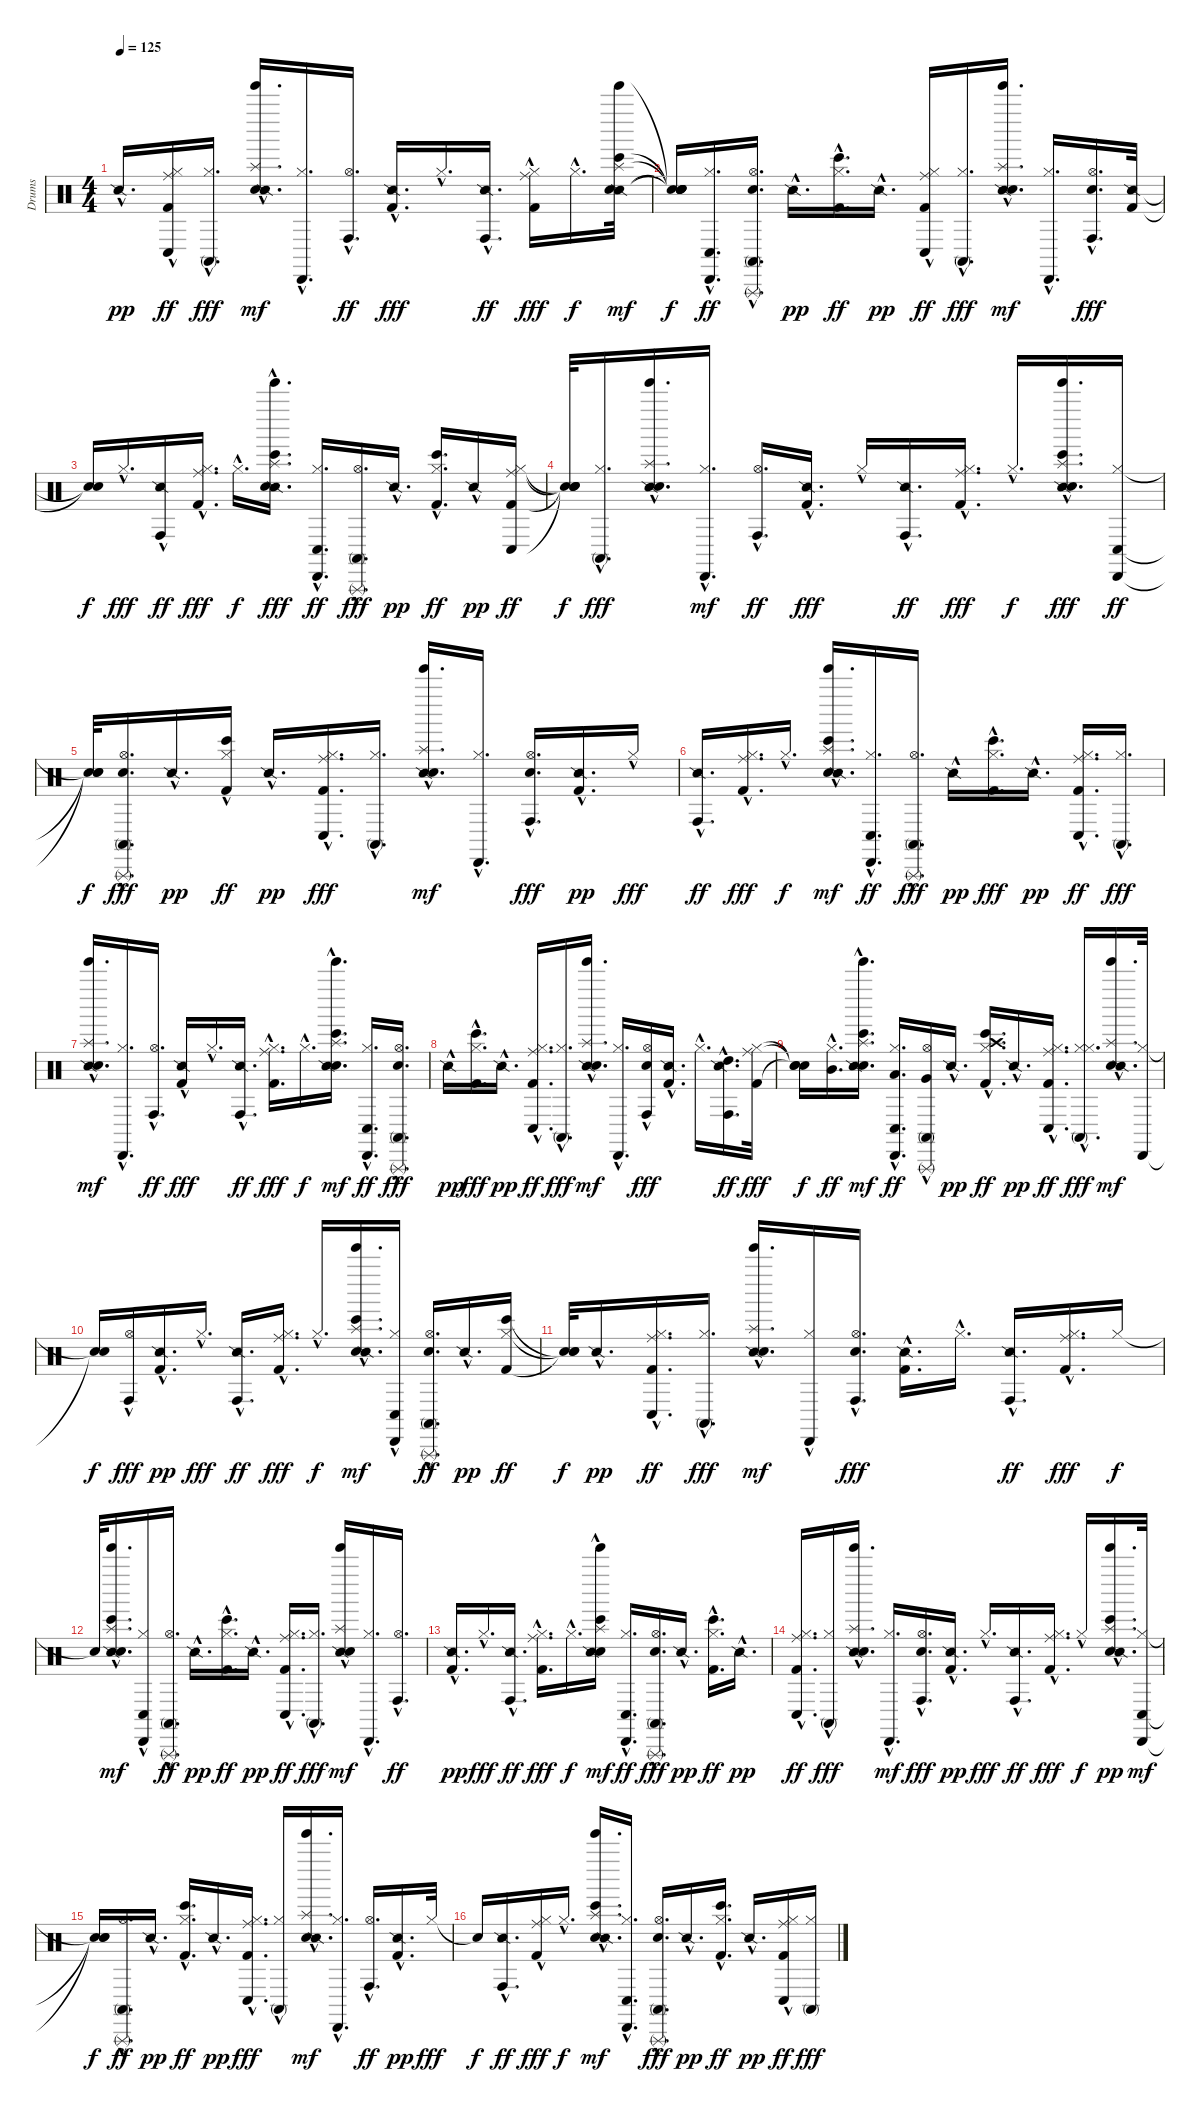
\track ("Drums" "Drums") {instrument percussion}
\staff {score}
\articulation defaults
\ts (4 4)
\tempo 125
\clef neutral
\ks c "Snare (side stick) 2"{hac}.16{d dy pp}
("Hi-Hat (closed)"{hac} "Kick (hit) 2"{hac} "Ride (middle)"{hac} "Conga low (hit)"{hac}).16{dy ff} ("Hi-Hat (closed)"{hac} "Conga high (mute)"{hac}).16{d dy fff} ("Hand Clap (hit)"{hac} "Snare (side stick) 2"{hac} "Tinkle Bell (hit)"{hac} "Splash (hit)"{hac}).16{d dy mf} ("Hi-Hat (closed)"{hac} "Cabasa (hit)"{hac}).16{d} ("Hi-Hat (open)"{hac} "Conga high (hit)"{hac}).16{d dy ff} ("Snare (side stick) 2"{hac} "Kick (hit) 2"{hac}).16{d dy fff} "Hi-Hat (closed)"{hac}.16{d} ("Snare (side stick) 2"{hac} "Conga high (hit)"{hac}).16{d dy ff} ("Kick (hit) 2"{hac} "Hi-Hat (closed)"{hac} "Ride (middle)"{hac}).16{dy fff} "Hi-Hat (closed)"{hac}.16{d dy f} ("Snare (side stick) 2" "Splash (hit)" "Hand Clap (hit)" "Bongo High (hit)" "Tinkle Bell (hit)").32{dy mf} |
("Snare (hit)"{t} "Snare (hit)"{t} "Snare (hit)"{t} "Snare (hit)"{t} "Snare (hit)"{t}).16{dy f} ("Hi-Hat (closed)"{hac} "Cabasa (hit)"{hac} "Conga low (hit)"{hac}).16{d dy ff} ("Hi-Hat (open)"{hac} "Hand Clap (hit)"{hac} "Conga high (mute)"{hac} "Triangle (rnute)"{hac}).16{d} "Snare (side stick) 2"{hac}.16{d dy pp} ("Hi-Hat (closed)"{hac} "Kick (hit) 2"{hac} "Bongo High (hit)"{hac}).16{d dy ff} "Snare (side stick) 2"{hac}.16{d dy pp} ("Kick (hit) 2"{hac} "Conga low (hit)"{hac} "Ride (middle)"{hac} "Hi-Hat (closed)"{hac}).16{dy ff} ("Hi-Hat (closed)"{hac} "Conga high (mute)"{hac}).16{d dy fff} ("Snare (side stick) 2"{hac} "Hand Clap (hit)"{hac} "Splash (hit)"{hac} "Tinkle Bell (hit)"{hac}).16{d dy mf} ("Cabasa (hit)"{hac} "Hi-Hat (closed)"{hac}).16{d} ("Hi-Hat (open)"{hac} "Conga high (hit)"{hac} "Hand Clap (hit)"{hac}).16{d dy fff} ("Snare (side stick) 2" "Kick (hit) 2").32 |
("Snare (hit)"{t} "Snare (hit)"{t}).16{dy f} "Hi-Hat (closed)"{hac}.16{d dy fff} ("Snare (side stick) 2"{hac} "Conga high (hit)"{hac}).16{dy ff} ("Kick (hit) 2"{hac} "Ride (middle)"{hac} "Hi-Hat (closed)"{hac}).16{d dy fff} "Hi-Hat (closed)"{hac}.16{d dy f} ("Tinkle Bell (hit)"{hac} "Snare (side stick) 2"{hac} "Bongo High (hit)"{hac} "Hand Clap (hit)"{hac} "Splash (hit)"{hac}).16{d dy fff} ("Hi-Hat (closed)"{hac} "Cabasa (hit)"{hac} "Conga low (hit)"{hac}).16{d dy ff} ("Conga high (mute)"{hac} "Triangle (rnute)"{hac} "Hi-Hat (open)"{hac}).16{d dy fff} "Snare (side stick) 2"{hac}.16{d dy pp} ("Hi-Hat (closed)"{hac} "Kick (hit) 2"{hac} "Bongo High (hit)"{hac}).16{d dy ff} "Snare (side stick) 2"{hac}.16{dy pp} ("Kick (hit) 2" "Conga low (hit)" "Hi-Hat (closed)" "Ride (middle)").16{dy ff} |
("Snare (hit)"{t} "Snare (hit)"{t} "Snare (hit)"{t} "Snare (hit)"{t}).32{dy f} ("Conga high (mute)"{hac} "Hi-Hat (closed)"{hac}).16{d dy fff} ("Splash (hit)"{hac} "Tinkle Bell (hit)"{hac} "Snare (side stick) 2"{hac} "Hand Clap (hit)"{hac}).16{d} ("Cabasa (hit)"{hac} "Hi-Hat (closed)"{hac}).16{d dy mf} ("Hi-Hat (open)"{hac} "Conga high (hit)"{hac}).16{d dy ff} ("Snare (side stick) 2"{hac} "Kick (hit) 2"{hac}).16{d dy fff} "Hi-Hat (closed)"{hac}.16 ("Snare (side stick) 2"{hac} "Conga high (hit)"{hac}).16{d dy ff} ("Ride (middle)"{hac} "Hi-Hat (closed)"{hac} "Kick (hit) 2"{hac}).16{d dy fff} "Hi-Hat (closed)"{hac}.16{d dy f} ("Snare (side stick) 2"{hac} "Bongo High (hit)"{hac} "Tinkle Bell (hit)"{hac} "Splash (hit)"{hac} "Hand Clap (hit)"{hac}).16{d dy fff} ("Cabasa (hit)" "Hi-Hat (closed)" "Conga low (hit)").16{dy ff} |
("Snare (hit)"{t} "Snare (hit)"{t} "Snare (hit)"{t}).32{dy f} ("Hi-Hat (open)"{hac} "Triangle (rnute)"{hac} "Hand Clap (hit)"{hac} "Conga high (mute)"{hac}).16{d dy fff} "Snare (side stick) 2"{hac}.16{d dy pp} ("Hi-Hat (closed)"{hac} "Kick (hit) 2"{hac} "Bongo High (hit)"{hac}).16{dy ff} "Snare (side stick) 2"{hac}.16{d dy pp} ("Hi-Hat (closed)"{hac} "Ride (middle)"{hac} "Conga low (hit)"{hac} "Kick (hit) 2"{hac}).16{d dy fff} ("Hi-Hat (closed)"{hac} "Conga high (mute)"{hac}).16{d} ("Snare (side stick) 2"{hac} "Hand Clap (hit)"{hac} "Tinkle Bell (hit)"{hac} "Splash (hit)"{hac}).16{d dy mf} ("Hi-Hat (closed)"{hac} "Cabasa (hit)"{hac}).16{d} ("Hi-Hat (open)"{hac} "Conga high (hit)"{hac} "Hand Clap (hit)"{hac}).16{d dy fff} ("Kick (hit) 2"{hac} "Snare (side stick) 2"{hac}).16{d dy pp} "Hi-Hat (closed)"{hac}.16{dy fff} |
("Snare (side stick) 2"{hac} "Conga high (hit)"{hac}).16{d dy ff} ("Hi-Hat (closed)"{hac} "Kick (hit) 2"{hac} "Ride (middle)"{hac}).16{d dy fff} "Hi-Hat (closed)"{hac}.16{d dy f} ("Hand Clap (hit)"{hac} "Snare (side stick) 2"{hac} "Bongo High (hit)"{hac} "Tinkle Bell (hit)"{hac} "Splash (hit)"{hac}).16{d dy mf} ("Cabasa (hit)"{hac} "Hi-Hat (closed)"{hac} "Conga low (hit)"{hac}).16{d dy ff} ("Hi-Hat (open)"{hac} "Triangle (rnute)"{hac} "Conga high (mute)"{hac}).16{d dy fff} "Snare (side stick) 2"{hac}.16{dy pp} ("Hi-Hat (closed)"{hac} "Bongo High (hit)"{hac} "Kick (hit) 2"{hac}).16{d dy fff} "Snare (side stick) 2"{hac}.16{d dy pp} ("Ride (middle)"{hac} "Hi-Hat (closed)"{hac} "Kick (hit) 2"{hac} "Conga low (hit)"{hac}).16{d dy ff} ("Hi-Hat (closed)"{hac} "Conga high (mute)"{hac}).16{d dy fff} |
("Snare (side stick) 2"{hac} "Hand Clap (hit)"{hac} "Tinkle Bell (hit)"{hac} "Splash (hit)"{hac}).16{d dy mf} ("Hi-Hat (closed)"{hac} "Cabasa (hit)"{hac}).16{d} ("Hi-Hat (open)"{hac} "Conga high (hit)"{hac}).16{d dy ff} ("Snare (side stick) 2"{hac} "Kick (hit) 2"{hac}).16{dy fff} "Hi-Hat (closed)"{hac}.16{d} ("Snare (side stick) 2"{hac} "Conga high (hit)"{hac}).16{d dy ff} ("Kick (hit) 2"{hac} "Ride (middle)"{hac} "Hi-Hat (closed)"{hac}).16{d dy fff} "Hi-Hat (closed)"{hac}.16{d dy f} ("Hand Clap (hit)"{hac} "Bongo High (hit)"{hac} "Snare (side stick) 2"{hac} "Tinkle Bell (hit)"{hac} "Splash (hit)"{hac}).16{d dy mf} ("Hi-Hat (closed)"{hac} "Cabasa (hit)"{hac} "Conga low (hit)"{hac}).16{d dy ff} ("Hi-Hat (open)"{hac} "Conga high (mute)"{hac} "Triangle (rnute)"{hac} "Hand Clap (hit)"{hac}).16{d dy fff} |
"Snare (side stick) 2"{hac}.16{dy pp} ("Bongo High (hit)"{hac} "Kick (hit) 2"{hac} "Hi-Hat (closed)"{hac}).16{d dy fff} "Snare (side stick) 2"{hac}.16{d dy pp} ("Hi-Hat (closed)"{hac} "Kick (hit) 2"{hac} "Ride (middle)"{hac} "Conga low (hit)"{hac}).16{d dy ff} ("Hi-Hat (closed)"{hac} "Conga high (mute)"{hac}).16{d dy fff} ("Snare (side stick) 2"{hac} "Hand Clap (hit)"{hac} "Tinkle Bell (hit)"{hac} "Splash (hit)"{hac}).16{d dy mf} ("Hi-Hat (closed)"{hac} "Cabasa (hit)"{hac}).16{d} ("Hi-Hat (open)"{hac} "Conga high (hit)"{hac} "Hand Clap (hit)"{hac}).16{dy fff} ("Snare (side stick) 2"{hac} "Kick (hit) 2"{hac}).16{d} "Hi-Hat (closed)"{hac}.16{d} ("High Tom (hit)"{hac} "Snare (side stick) 2"{hac} "Conga high (hit)"{hac}).16{d dy ff} ("Kick (hit) 2" "Ride (middle)" "Hi-Hat (closed)").32{dy fff} |
("Snare (hit)"{t} "Snare (hit)"{t} "Snare (hit)"{t}).16{dy f} ("Hi-Hat (closed)"{hac} "Mid Tom (hit)"{hac}).16{d dy ff} ("Hand Clap (hit)"{hac} "Snare (side stick) 2"{hac} "Bongo High (hit)"{hac} "Tinkle Bell (hit)"{hac} "Splash (hit)"{hac}).16{d dy mf} ("Cabasa (hit)"{hac} "Hi-Hat (closed)"{hac} "Conga low (hit)"{hac} "Low Tom (hit)"{hac}).16{d dy ff} ("Hi-Hat (open)"{hac} "Triangle (rnute)"{hac} "Conga high (mute)"{hac} "Very Low Tom (hit)"{hac}).16 "Snare (side stick) 2"{hac}.16{d dy pp} ("Crash high (hit)" "Kick (hit) 2"{hac} "Hi-Hat (closed)"{hac} "Bongo High (hit)"{hac}).16{d dy ff} "Snare (side stick) 2"{hac}.16{d dy pp} ("Hi-Hat (closed)"{hac} "Kick (hit) 2"{hac} "Conga low (hit)"{hac} "Ride (middle)"{hac}).16{d dy ff} ("Hi-Hat (closed)"{hac} "Hi-Hat (closed)"{hac} "Conga high (mute)"{hac}).16{d dy fff} ("Splash (hit)"{hac} "Hand Clap (hit)"{hac} "Snare (side stick) 2"{hac} "Tinkle Bell (hit)"{hac}).16{d dy mf} ("Cabasa (hit)" "Hi-Hat (closed)").32 |
("Snare (hit)"{t} "Snare (hit)"{t}).16{dy f} ("Conga high (hit)"{hac} "Hi-Hat (open)"{hac}).16{dy fff} ("Kick (hit) 2"{hac} "Snare (side stick) 2"{hac}).16{d dy pp} "Hi-Hat (closed)"{hac}.16{d dy fff} ("Snare (side stick) 2"{hac} "Conga high (hit)"{hac}).16{d dy ff} ("Kick (hit) 2"{hac} "Hi-Hat (closed)"{hac} "Ride (middle)"{hac}).16{d dy fff} "Hi-Hat (closed)"{hac}.16{d dy f} ("Hand Clap (hit)"{hac} "Bongo High (hit)"{hac} "Snare (side stick) 2"{hac} "Tinkle Bell (hit)"{hac} "Splash (hit)"{hac}).16{d dy mf} ("Cabasa (hit)"{hac} "Conga low (hit)"{hac} "Hi-Hat (closed)"{hac}).16 ("Hand Clap (hit)"{hac} "Conga high (mute)"{hac} "Hi-Hat (open)"{hac} "Triangle (rnute)"{hac}).16{d dy ff} "Snare (side stick) 2"{hac}.16{d dy pp} ("Kick (hit) 2" "Hi-Hat (closed)" "Bongo High (hit)").16{dy ff} |
("Snare (hit)"{t} "Snare (hit)"{t} "Snare (hit)"{t}).32{dy f} "Snare (side stick) 2"{hac}.16{d dy pp} ("Ride (middle)"{hac} "Hi-Hat (closed)"{hac} "Kick (hit) 2"{hac} "Conga low (hit)"{hac}).16{d dy ff} ("Hi-Hat (closed)"{hac} "Conga high (mute)"{hac}).16{d dy fff} ("Snare (side stick) 2"{hac} "Hand Clap (hit)"{hac} "Tinkle Bell (hit)"{hac} "Splash (hit)"{hac}).16{d dy mf} ("Hi-Hat (closed)"{hac} "Cabasa (hit)"{hac}).16 ("Hi-Hat (open)"{hac} "Conga high (hit)"{hac} "Hand Clap (hit)"{hac}).16{d dy fff} ("Snare (side stick) 2"{hac} "Kick (hit) 2"{hac}).16{d} "Hi-Hat (closed)"{hac}.16{d} ("Snare (side stick) 2"{hac} "Conga high (hit)"{hac}).16{d dy ff} ("Kick (hit) 2"{hac} "Hi-Hat (closed)"{hac} "Ride (middle)"{hac}).16{d dy fff} "Hi-Hat (closed)".16{dy f} |
"Snare (hit)"{t}.32 ("Snare (side stick) 2"{hac} "Hand Clap (hit)"{hac} "Bongo High (hit)"{hac} "Tinkle Bell (hit)"{hac} "Splash (hit)"{hac}).16{d dy mf} ("Cabasa (hit)"{hac} "Conga low (hit)"{hac} "Hi-Hat (closed)"{hac}).16 ("Hi-Hat (open)"{hac} "Conga high (mute)"{hac} "Triangle (rnute)"{hac}).16{d dy ff} "Snare (side stick) 2"{hac}.16{d dy pp} ("Kick (hit) 2"{hac} "Hi-Hat (closed)"{hac} "Bongo High (hit)"{hac}).16{d dy ff} "Snare (side stick) 2"{hac}.16{d dy pp} ("Kick (hit) 2"{hac} "Ride (middle)"{hac} "Hi-Hat (closed)"{hac} "Conga low (hit)"{hac}).16{d dy ff} ("Hi-Hat (closed)"{hac} "Conga high (mute)"{hac}).16{d dy fff} ("Snare (side stick) 2"{hac} "Hand Clap (hit)"{hac} "Tinkle Bell (hit)"{hac} "Splash (hit)"{hac}).16{dy mf} ("Hi-Hat (closed)"{hac} "Cabasa (hit)"{hac}).16{d} ("Hi-Hat (open)"{hac} "Conga high (hit)"{hac}).16{d dy ff} |
("Kick (hit) 2"{hac} "Snare (side stick) 2"{hac}).16{d dy pp} "Hi-Hat (closed)"{hac}.16{d dy fff} ("Snare (side stick) 2"{hac} "Conga high (hit)"{hac}).16{d dy ff} ("Kick (hit) 2"{hac} "Ride (middle)"{hac} "Hi-Hat (closed)"{hac}).16{d dy fff} "Hi-Hat (closed)"{hac}.16{d dy f} ("Hand Clap (hit)"{hac} "Snare (side stick) 2"{hac} "Bongo High (hit)"{hac} "Tinkle Bell (hit)"{hac} "Splash (hit)"{hac}).16{dy mf} ("Cabasa (hit)"{hac} "Hi-Hat (closed)"{hac} "Conga low (hit)"{hac}).16{d dy ff} ("Hand Clap (hit)"{hac} "Hi-Hat (open)"{hac} "Triangle (rnute)"{hac} "Conga high (mute)"{hac}).16{d dy fff} "Snare (side stick) 2"{hac}.16{d dy pp} ("Kick (hit) 2"{hac} "Hi-Hat (closed)"{hac} "Bongo High (hit)"{hac}).16{d dy ff} "Snare (side stick) 2"{hac}.16{d dy pp} |
("Hi-Hat (closed)"{hac} "Kick (hit) 2"{hac} "Conga low (hit)"{hac} "Ride (middle)"{hac}).16{d dy ff} ("Hi-Hat (closed)"{hac} "Conga high (mute)"{hac}).16{dy fff} ("Splash (hit)"{hac} "Snare (side stick) 2"{hac} "Tinkle Bell (hit)"{hac} "Hand Clap (hit)"{hac}).16{d} ("Cabasa (hit)"{hac} "Hi-Hat (closed)"{hac}).16{d dy mf} ("Hi-Hat (open)"{hac} "Conga high (hit)"{hac} "Hand Clap (hit)"{hac}).16{d dy fff} ("Kick (hit) 2"{hac} "Snare (side stick) 2"{hac}).16{d dy pp} "Hi-Hat (closed)"{hac}.16{d dy fff} ("Snare (side stick) 2"{hac} "Conga high (hit)"{hac}).16{d dy ff} ("Hi-Hat (closed)"{hac} "Kick (hit) 2"{hac} "Ride (middle)"{hac}).16{d dy fff} "Hi-Hat (closed)"{hac}.16{dy f} ("Bongo High (hit)"{hac} "Hand Clap (hit)"{hac} "Tinkle Bell (hit)"{hac} "Splash (hit)"{hac} "Snare (side stick) 2"{hac}).16{d dy pp} ("Cabasa (hit)" "Conga low (hit)" "Hi-Hat (closed)").32{dy mf} |
("Snare (hit)"{t} "Snare (hit)"{t} "Snare (hit)"{t}).16{dy f} ("Hi-Hat (open)"{hac} "Conga high (mute)"{hac} "Triangle (rnute)"{hac}).16{d dy ff} "Snare (side stick) 2"{hac}.16{d dy pp} ("Hi-Hat (closed)"{hac} "Kick (hit) 2"{hac} "Bongo High (hit)"{hac}).16{d dy ff} "Snare (side stick) 2"{hac}.16{d dy pp} ("Conga low (hit)"{hac} "Ride (middle)"{hac} "Hi-Hat (closed)"{hac} "Kick (hit) 2"{hac}).16{d dy fff} ("Conga high (mute)"{hac} "Hi-Hat (closed)"{hac}).16 ("Hand Clap (hit)"{hac} "Snare (side stick) 2"{hac} "Tinkle Bell (hit)"{hac} "Splash (hit)"{hac}).16{d dy mf} ("Hi-Hat (closed)"{hac} "Cabasa (hit)"{hac}).16{d} ("Hi-Hat (open)"{hac} "Conga high (hit)"{hac}).16{d dy ff} ("Kick (hit) 2"{hac} "Snare (side stick) 2"{hac}).16{d dy pp} "Hi-Hat (closed)".32{dy fff} |
"Snare (hit)"{t}.16{dy f} ("Snare (side stick) 2"{hac} "Conga high (hit)"{hac}).16{d dy ff} ("Ride (middle)"{hac} "Hi-Hat (closed)"{hac} "Kick (hit) 2"{hac}).16{dy fff} "Hi-Hat (closed)"{hac}.16{d dy f} ("Hand Clap (hit)"{hac} "Snare (side stick) 2"{hac} "Bongo High (hit)"{hac} "Tinkle Bell (hit)"{hac} "Splash (hit)"{hac}).16{d dy mf} ("Conga low (hit)"{hac} "Cabasa (hit)"{hac} "Hi-Hat (closed)"{hac}).16{d} ("Conga high (mute)"{hac} "Hand Clap (hit)"{hac} "Triangle (rnute)"{hac} "Hi-Hat (open)"{hac}).16{d dy fff} "Snare (side stick) 2"{hac}.16{d dy pp} ("Kick (hit) 2"{hac} "Hi-Hat (closed)"{hac} "Bongo High (hit)"{hac}).16{d dy ff} "Snare (side stick) 2"{hac}.16{d dy pp} ("Hi-Hat (closed)"{hac} "Ride (middle)"{hac} "Kick (hit) 2"{hac} "Conga low (hit)"{hac}).16{dy ff} ("Hi-Hat (closed)" "Conga high (mute)").16{dy fff}
